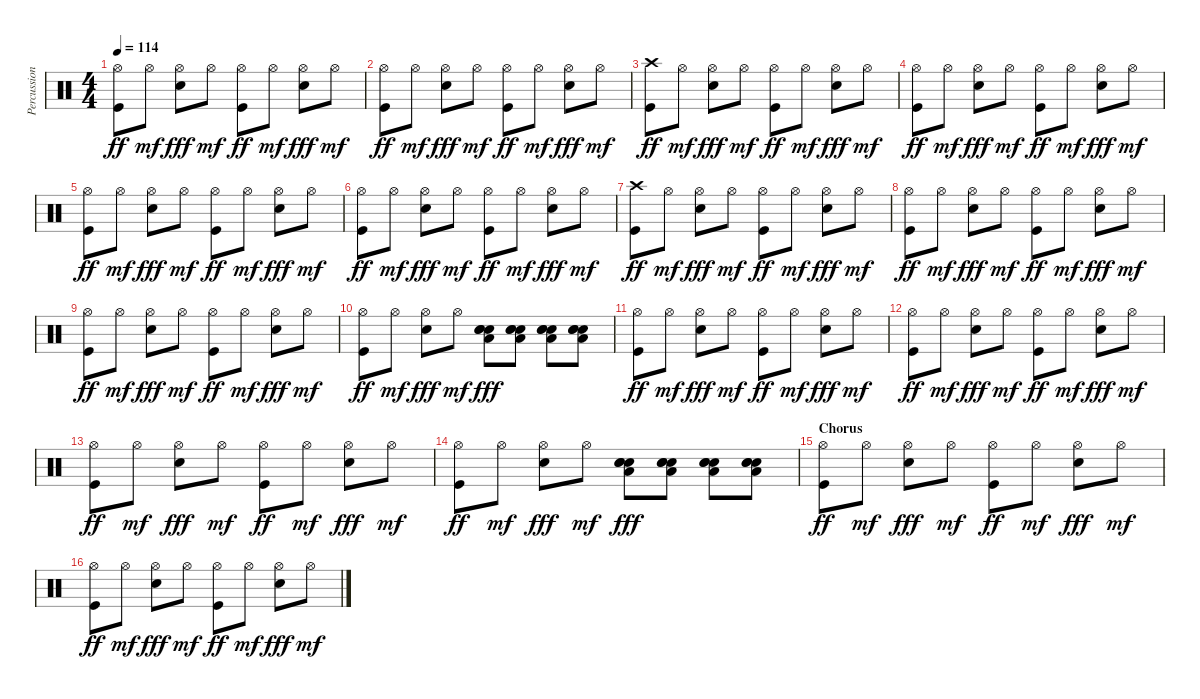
\track ("Percussion" "Percussion") {instrument percussion}
\staff {score}
\articulation defaults
\ts (4 4)
\tempo 114
\clef neutral
\ks c
("Hi-Hat (open)" "Kick (hit)").8{dy ff} "Hi-Hat (open)".8{dy mf} ("Hi-Hat (open)" "Snare (hit) 2").8{dy fff} "Hi-Hat (open)".8{dy mf} ("Hi-Hat (open)" "Kick (hit)").8{dy ff} "Hi-Hat (open)".8{dy mf} ("Hi-Hat (open)" "Snare (hit) 2").8{dy fff} "Hi-Hat (open)".8{dy mf} |
("Hi-Hat (open)" "Kick (hit)").8{dy ff} "Hi-Hat (open)".8{dy mf} ("Hi-Hat (open)" "Snare (hit) 2").8{dy fff} "Hi-Hat (open)".8{dy mf} ("Hi-Hat (open)" "Kick (hit)").8{dy ff} "Hi-Hat (open)".8{dy mf} ("Hi-Hat (open)" "Snare (hit) 2").8{dy fff} "Hi-Hat (open)".8{dy mf} |
("Crash high (hit)" "Kick (hit)").8{dy ff} "Hi-Hat (open)".8{dy mf} ("Hi-Hat (open)" "Snare (hit) 2").8{dy fff} "Hi-Hat (open)".8{dy mf} ("Hi-Hat (open)" "Kick (hit)").8{dy ff} "Hi-Hat (open)".8{dy mf} ("Hi-Hat (open)" "Snare (hit) 2").8{dy fff} "Hi-Hat (open)".8{dy mf} |
("Hi-Hat (open)" "Kick (hit)").8{dy ff} "Hi-Hat (open)".8{dy mf} ("Hi-Hat (open)" "Snare (hit) 2").8{dy fff} "Hi-Hat (open)".8{dy mf} ("Hi-Hat (open)" "Kick (hit)").8{dy ff} "Hi-Hat (open)".8{dy mf} ("Hi-Hat (open)" "Snare (hit) 2").8{dy fff} "Hi-Hat (open)".8{dy mf} |
("Hi-Hat (open)" "Kick (hit)").8{dy ff} "Hi-Hat (open)".8{dy mf} ("Hi-Hat (open)" "Snare (hit) 2").8{dy fff} "Hi-Hat (open)".8{dy mf} ("Hi-Hat (open)" "Kick (hit)").8{dy ff} "Hi-Hat (open)".8{dy mf} ("Hi-Hat (open)" "Snare (hit) 2").8{dy fff} "Hi-Hat (open)".8{dy mf} |
("Hi-Hat (open)" "Kick (hit)").8{dy ff} "Hi-Hat (open)".8{dy mf} ("Hi-Hat (open)" "Snare (hit) 2").8{dy fff} "Hi-Hat (open)".8{dy mf} ("Hi-Hat (open)" "Kick (hit)").8{dy ff} "Hi-Hat (open)".8{dy mf} ("Hi-Hat (open)" "Snare (hit) 2").8{dy fff} "Hi-Hat (open)".8{dy mf} |
("Crash high (hit)" "Kick (hit)").8{dy ff} "Hi-Hat (open)".8{dy mf} ("Hi-Hat (open)" "Snare (hit) 2").8{dy fff} "Hi-Hat (open)".8{dy mf} ("Hi-Hat (open)" "Kick (hit)").8{dy ff} "Hi-Hat (open)".8{dy mf} ("Hi-Hat (open)" "Snare (hit) 2").8{dy fff} "Hi-Hat (open)".8{dy mf} |
("Hi-Hat (open)" "Kick (hit)").8{dy ff} "Hi-Hat (open)".8{dy mf} ("Hi-Hat (open)" "Snare (hit) 2").8{dy fff} "Hi-Hat (open)".8{dy mf} ("Hi-Hat (open)" "Kick (hit)").8{dy ff} "Hi-Hat (open)".8{dy mf} ("Hi-Hat (open)" "Snare (hit) 2").8{dy fff} "Hi-Hat (open)".8{dy mf} |
("Hi-Hat (open)" "Kick (hit)").8{dy ff} "Hi-Hat (open)".8{dy mf} ("Hi-Hat (open)" "Snare (hit) 2").8{dy fff} "Hi-Hat (open)".8{dy mf} ("Hi-Hat (open)" "Kick (hit)").8{dy ff} "Hi-Hat (open)".8{dy mf} ("Hi-Hat (open)" "Snare (hit) 2").8{dy fff} "Hi-Hat (open)".8{dy mf} |
("Hi-Hat (open)" "Kick (hit)").8{dy ff} "Hi-Hat (open)".8{dy mf} ("Hi-Hat (open)" "Snare (hit) 2").8{dy fff} "Hi-Hat (open)".8{dy mf} ("Snare (hit) 2" "Electric Snare (hit)" "Electric Snare (hit)" "Low Tom (hit)").8{dy fff} ("Snare (hit) 2" "Electric Snare (hit)" "Electric Snare (hit)" "Low Tom (hit)").8 ("Snare (hit) 2" "Electric Snare (hit)" "Electric Snare (hit)" "Low Tom (hit)").8 ("Snare (hit) 2" "Electric Snare (hit)" "Electric Snare (hit)" "Low Tom (hit)").8 |
("Hi-Hat (open)" "Kick (hit)").8{dy ff} "Hi-Hat (open)".8{dy mf} ("Hi-Hat (open)" "Snare (hit) 2").8{dy fff} "Hi-Hat (open)".8{dy mf} ("Hi-Hat (open)" "Kick (hit)").8{dy ff} "Hi-Hat (open)".8{dy mf} ("Hi-Hat (open)" "Snare (hit) 2").8{dy fff} "Hi-Hat (open)".8{dy mf} |
("Hi-Hat (open)" "Kick (hit)").8{dy ff} "Hi-Hat (open)".8{dy mf} ("Hi-Hat (open)" "Snare (hit) 2").8{dy fff} "Hi-Hat (open)".8{dy mf} ("Hi-Hat (open)" "Kick (hit)").8{dy ff} "Hi-Hat (open)".8{dy mf} ("Hi-Hat (open)" "Snare (hit) 2").8{dy fff} "Hi-Hat (open)".8{dy mf} |
("Hi-Hat (open)" "Kick (hit)").8{dy ff} "Hi-Hat (open)".8{dy mf} ("Hi-Hat (open)" "Snare (hit) 2").8{dy fff} "Hi-Hat (open)".8{dy mf} ("Hi-Hat (open)" "Kick (hit)").8{dy ff} "Hi-Hat (open)".8{dy mf} ("Hi-Hat (open)" "Snare (hit) 2").8{dy fff} "Hi-Hat (open)".8{dy mf} |
("Hi-Hat (open)" "Kick (hit)").8{dy ff} "Hi-Hat (open)".8{dy mf} ("Hi-Hat (open)" "Snare (hit) 2").8{dy fff} "Hi-Hat (open)".8{dy mf} ("Snare (hit) 2" "Electric Snare (hit)" "Electric Snare (hit)" "Low Floor Tom (hit)").8{dy fff} ("Snare (hit) 2" "Electric Snare (hit)" "Electric Snare (hit)" "Low Floor Tom (hit)").8 ("Snare (hit) 2" "Electric Snare (hit)" "Electric Snare (hit)" "Low Floor Tom (hit)").8 ("Snare (hit) 2" "Electric Snare (hit)" "Electric Snare (hit)" "Low Floor Tom (hit)").8 |
\section ("" "Chorus")
("Hi-Hat (open)" "Kick (hit)").8{dy ff} "Hi-Hat (open)".8{dy mf} ("Hi-Hat (open)" "Snare (hit) 2").8{dy fff} "Hi-Hat (open)".8{dy mf} ("Hi-Hat (open)" "Kick (hit)").8{dy ff} "Hi-Hat (open)".8{dy mf} ("Hi-Hat (open)" "Snare (hit) 2").8{dy fff} "Hi-Hat (open)".8{dy mf} |
("Hi-Hat (open)" "Kick (hit)").8{dy ff} "Hi-Hat (open)".8{dy mf} ("Hi-Hat (open)" "Snare (hit) 2").8{dy fff} "Hi-Hat (open)".8{dy mf} ("Hi-Hat (open)" "Kick (hit)").8{dy ff} "Hi-Hat (open)".8{dy mf} ("Hi-Hat (open)" "Snare (hit) 2").8{dy fff} "Hi-Hat (open)".8{dy mf}
